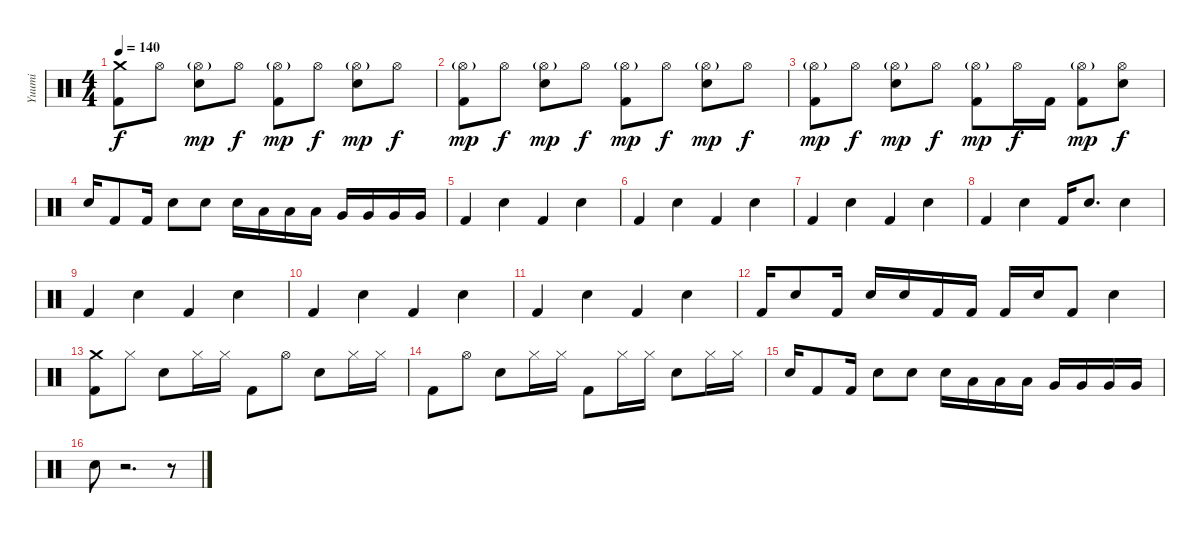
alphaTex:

\track ("Yuumi" "Yuumi") {instrument percussion}
\staff {score}
\articulation defaults
\ts (4 4)
\tempo 140
\clef neutral
\ks c
("Crash medium (hit)" "Kick (hit) 2").8{dy f} "Hi-Hat (open)".8 ("Hi-Hat (open)"{g} "Electric Snare (hit)").8{dy mp} "Hi-Hat (open)".8{dy f} ("Hi-Hat (open)"{g} "Kick (hit) 2").8{dy mp} "Hi-Hat (open)".8{dy f} ("Hi-Hat (open)"{g} "Electric Snare (hit)").8{dy mp} "Hi-Hat (open)".8{dy f} |
("Hi-Hat (open)"{g} "Kick (hit) 2").8{dy mp} "Hi-Hat (open)".8{dy f} ("Hi-Hat (open)"{g} "Electric Snare (hit)").8{dy mp} "Hi-Hat (open)".8{dy f} ("Hi-Hat (open)"{g} "Kick (hit) 2").8{dy mp} "Hi-Hat (open)".8{dy f} ("Hi-Hat (open)"{g} "Electric Snare (hit)").8{dy mp} "Hi-Hat (open)".8{dy f} |
("Hi-Hat (open)"{g} "Kick (hit) 2").8{dy mp} "Hi-Hat (open)".8{dy f} ("Hi-Hat (open)"{g} "Electric Snare (hit)").8{dy mp} "Hi-Hat (open)".8{dy f} ("Hi-Hat (open)"{g} "Kick (hit) 2").8{dy mp} "Hi-Hat (open)".16{dy f} "Kick (hit) 2".16 ("Hi-Hat (open)"{g} "Kick (hit) 2").8{dy mp} ("Hi-Hat (open)" "Electric Snare (hit)").8{dy f} |
"Electric Snare (hit)".16 "Kick (hit) 2".8 "Kick (hit) 2".16 "Electric Snare (hit)".8 "Electric Snare (hit)".8 "Electric Snare (hit)".16 "Low Tom (hit)".16 "Low Tom (hit)".16 "Low Tom (hit)".16 "Very Low Tom (hit)".16 "Very Low Tom (hit)".16 "Very Low Tom (hit)".16 "Very Low Tom (hit)".16 |
"Kick (hit) 2".4 "Electric Snare (hit)".4 "Kick (hit) 2".4 "Electric Snare (hit)".4 |
"Kick (hit) 2".4 "Electric Snare (hit)".4 "Kick (hit) 2".4 "Electric Snare (hit)".4 |
"Kick (hit) 2".4 "Electric Snare (hit)".4 "Kick (hit) 2".4 "Electric Snare (hit)".4 |
"Kick (hit) 2".4 "Electric Snare (hit)".4 "Kick (hit) 2".16 "Electric Snare (hit)".8{d} "Electric Snare (hit)".4 |
"Kick (hit) 2".4 "Electric Snare (hit)".4 "Kick (hit) 2".4 "Electric Snare (hit)".4 |
"Kick (hit) 2".4 "Electric Snare (hit)".4 "Kick (hit) 2".4 "Electric Snare (hit)".4 |
"Kick (hit) 2".4 "Electric Snare (hit)".4 "Kick (hit) 2".4 "Electric Snare (hit)".4 |
"Kick (hit) 2".16 "Electric Snare (hit)".8 "Kick (hit) 2".16 "Electric Snare (hit)".16 "Electric Snare (hit)".16 "Kick (hit) 2".16 "Kick (hit) 2".16 "Kick (hit) 2".16 "Electric Snare (hit)".16 "Kick (hit) 2".8 "Electric Snare (hit)".4 |
("Crash medium (hit)" "Kick (hit) 2").8 "Hi-Hat (closed)".8 "Electric Snare (hit)".8 "Hi-Hat (closed)".16 "Hi-Hat (closed)".16 "Kick (hit) 2".8 "Hi-Hat (open)".8 "Electric Snare (hit)".8 "Hi-Hat (closed)".16 "Hi-Hat (closed)".16 |
"Kick (hit) 2".8 "Hi-Hat (open)".8 "Electric Snare (hit)".8 "Hi-Hat (closed)".16 "Hi-Hat (closed)".16 "Kick (hit) 2".8 "Hi-Hat (closed)".16 "Hi-Hat (closed)".16 "Electric Snare (hit)".8 "Hi-Hat (closed)".16 "Hi-Hat (closed)".16 |
"Electric Snare (hit)".16 "Kick (hit) 2".8 "Kick (hit) 2".16 "Electric Snare (hit)".8 "Electric Snare (hit)".8 "Electric Snare (hit)".16 "Low Tom (hit)".16 "Low Tom (hit)".16 "Low Tom (hit)".16 "Very Low Tom (hit)".16 "Very Low Tom (hit)".16 "Very Low Tom (hit)".16 "Very Low Tom (hit)".16 |
"Electric Snare (hit)".8 r.2{d} r.8
